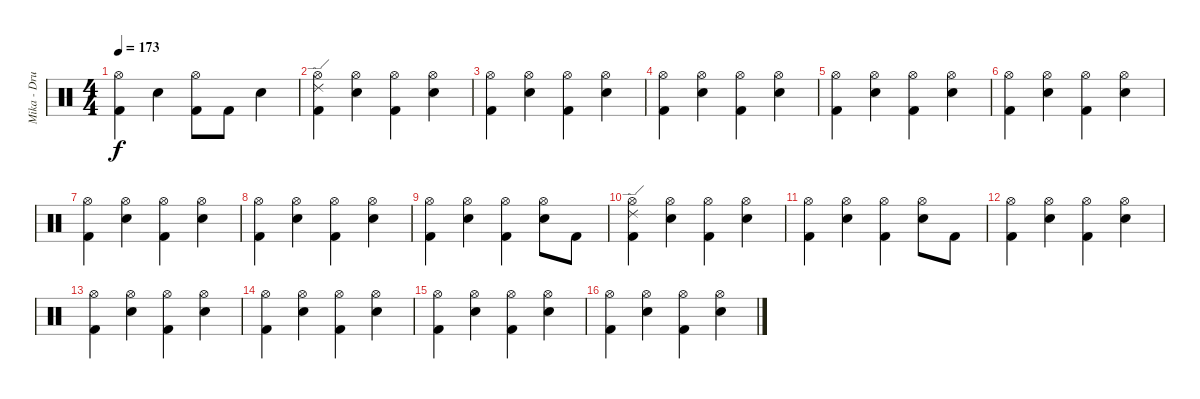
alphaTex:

\track ("Mika - Drums" "Mika - Dru") {instrument percussion}
\staff {score}
\articulation defaults
\ts (4 4)
\tempo 173
\clef neutral
\ks c
("Hi-Hat (open)" "Kick (hit) 2").4{dy f} "Electric Snare (hit)".4 ("Hi-Hat (open)" "Kick (hit) 2").8 "Kick (hit) 2".8 "Electric Snare (hit)".4 |
("Ride (edge) 2" "Hi-Hat (open)" "Kick (hit) 2").4 ("Hi-Hat (open)" "Electric Snare (hit)").4 ("Hi-Hat (open)" "Kick (hit) 2").4 ("Hi-Hat (open)" "Electric Snare (hit)").4 |
("Hi-Hat (open)" "Kick (hit) 2").4 ("Hi-Hat (open)" "Electric Snare (hit)").4 ("Hi-Hat (open)" "Kick (hit) 2").4 ("Hi-Hat (open)" "Electric Snare (hit)").4 |
("Hi-Hat (open)" "Kick (hit) 2").4 ("Hi-Hat (open)" "Electric Snare (hit)").4 ("Hi-Hat (open)" "Kick (hit) 2").4 ("Hi-Hat (open)" "Electric Snare (hit)").4 |
("Hi-Hat (open)" "Kick (hit) 2").4 ("Hi-Hat (open)" "Electric Snare (hit)").4 ("Hi-Hat (open)" "Kick (hit) 2").4 ("Hi-Hat (open)" "Electric Snare (hit)").4 |
("Hi-Hat (open)" "Kick (hit) 2").4 ("Hi-Hat (open)" "Electric Snare (hit)").4 ("Hi-Hat (open)" "Kick (hit) 2").4 ("Hi-Hat (open)" "Electric Snare (hit)").4 |
("Hi-Hat (open)" "Kick (hit) 2").4 ("Hi-Hat (open)" "Electric Snare (hit)").4 ("Hi-Hat (open)" "Kick (hit) 2").4 ("Hi-Hat (open)" "Electric Snare (hit)").4 |
("Hi-Hat (open)" "Kick (hit) 2").4 ("Hi-Hat (open)" "Electric Snare (hit)").4 ("Hi-Hat (open)" "Kick (hit) 2").4 ("Hi-Hat (open)" "Electric Snare (hit)").4 |
("Hi-Hat (open)" "Kick (hit) 2").4 ("Hi-Hat (open)" "Electric Snare (hit)").4 ("Hi-Hat (open)" "Kick (hit) 2").4 ("Hi-Hat (open)" "Electric Snare (hit)").8 "Kick (hit) 2".8 |
("Ride (edge) 2" "Hi-Hat (open)" "Kick (hit) 2").4 ("Hi-Hat (open)" "Electric Snare (hit)").4 ("Hi-Hat (open)" "Kick (hit) 2").4 ("Hi-Hat (open)" "Electric Snare (hit)").4 |
("Hi-Hat (open)" "Kick (hit) 2").4 ("Hi-Hat (open)" "Electric Snare (hit)").4 ("Hi-Hat (open)" "Kick (hit) 2").4 ("Hi-Hat (open)" "Electric Snare (hit)").8 "Kick (hit) 2".8 |
("Hi-Hat (open)" "Kick (hit) 2").4 ("Hi-Hat (open)" "Electric Snare (hit)").4 ("Hi-Hat (open)" "Kick (hit) 2").4 ("Hi-Hat (open)" "Electric Snare (hit)").4 |
("Hi-Hat (open)" "Kick (hit) 2").4 ("Hi-Hat (open)" "Electric Snare (hit)").4 ("Hi-Hat (open)" "Kick (hit) 2").4 ("Hi-Hat (open)" "Electric Snare (hit)").4 |
("Hi-Hat (open)" "Kick (hit) 2").4 ("Hi-Hat (open)" "Electric Snare (hit)").4 ("Hi-Hat (open)" "Kick (hit) 2").4 ("Hi-Hat (open)" "Electric Snare (hit)").4 |
("Hi-Hat (open)" "Kick (hit) 2").4 ("Hi-Hat (open)" "Electric Snare (hit)").4 ("Hi-Hat (open)" "Kick (hit) 2").4 ("Hi-Hat (open)" "Electric Snare (hit)").4 |
("Hi-Hat (open)" "Kick (hit) 2").4 ("Hi-Hat (open)" "Electric Snare (hit)").4 ("Hi-Hat (open)" "Kick (hit) 2").4 ("Hi-Hat (open)" "Electric Snare (hit)").4
